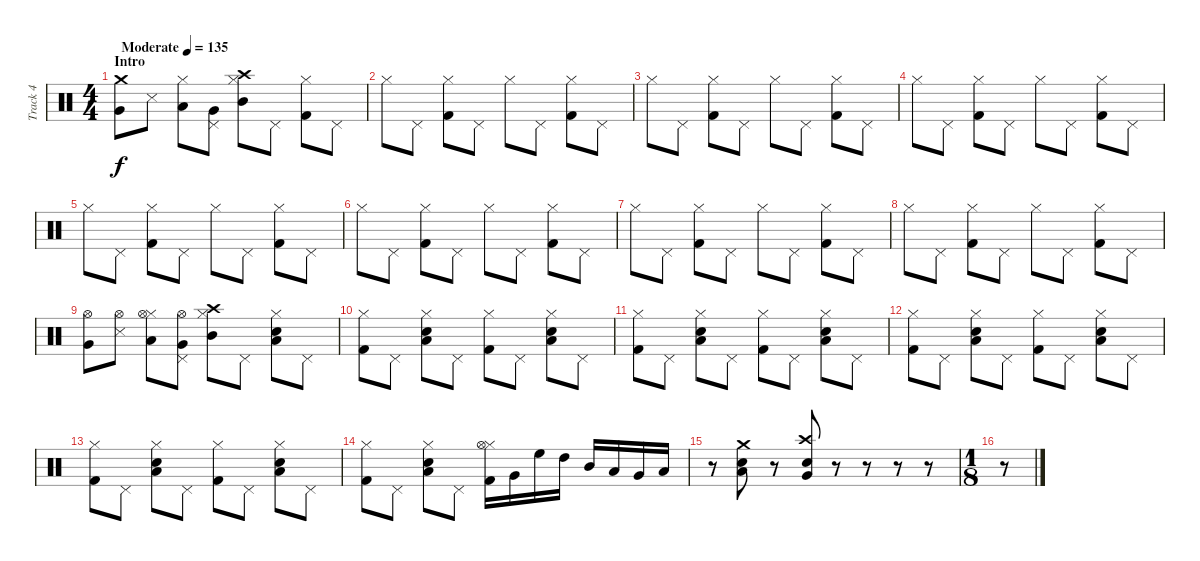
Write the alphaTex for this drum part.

\track ("Track 4" "Track 4") {instrument percussion}
\staff {score}
\articulation defaults
\ts (4 4)
\section ("" "Intro")
\tempo (135 "Moderate")
\clef neutral
\ks c
("Very Low Tom (hit)" "Crash medium (hit)").8{dy f} "Snare (side stick) 3".8 ("Hi-Hat (closed)" "Low Tom (hit)").8 ("Pedal Hi-Hat (hit)" "Very Low Tom (hit)").8 ("Hi-Hat (closed)" "Mid Tom (hit)" "Crash high (hit)").8 "Pedal Hi-Hat (hit)".8 ("Hi-Hat (closed)" "Kick (hit) 2").8 "Pedal Hi-Hat (hit)".8 |
"Hi-Hat (closed)".8 "Pedal Hi-Hat (hit)".8 ("Hi-Hat (closed)" "Kick (hit) 2").8 "Pedal Hi-Hat (hit)".8 "Hi-Hat (closed)".8 "Pedal Hi-Hat (hit)".8 ("Hi-Hat (closed)" "Kick (hit) 2").8 "Pedal Hi-Hat (hit)".8 |
"Hi-Hat (closed)".8 "Pedal Hi-Hat (hit)".8 ("Hi-Hat (closed)" "Kick (hit) 2").8 "Pedal Hi-Hat (hit)".8 "Hi-Hat (closed)".8 "Pedal Hi-Hat (hit)".8 ("Hi-Hat (closed)" "Kick (hit) 2").8 "Pedal Hi-Hat (hit)".8 |
"Hi-Hat (closed)".8 "Pedal Hi-Hat (hit)".8 ("Hi-Hat (closed)" "Kick (hit) 2").8 "Pedal Hi-Hat (hit)".8 "Hi-Hat (closed)".8 "Pedal Hi-Hat (hit)".8 ("Hi-Hat (closed)" "Kick (hit) 2").8 "Pedal Hi-Hat (hit)".8 |
"Hi-Hat (closed)".8 "Pedal Hi-Hat (hit)".8 ("Hi-Hat (closed)" "Kick (hit) 2").8 "Pedal Hi-Hat (hit)".8 "Hi-Hat (closed)".8 "Pedal Hi-Hat (hit)".8 ("Hi-Hat (closed)" "Kick (hit) 2").8 "Pedal Hi-Hat (hit)".8 |
"Hi-Hat (closed)".8 "Pedal Hi-Hat (hit)".8 ("Hi-Hat (closed)" "Kick (hit) 2").8 "Pedal Hi-Hat (hit)".8 "Hi-Hat (closed)".8 "Pedal Hi-Hat (hit)".8 ("Hi-Hat (closed)" "Kick (hit) 2").8 "Pedal Hi-Hat (hit)".8 |
"Hi-Hat (closed)".8 "Pedal Hi-Hat (hit)".8 ("Hi-Hat (closed)" "Kick (hit) 2").8 "Pedal Hi-Hat (hit)".8 "Hi-Hat (closed)".8 "Pedal Hi-Hat (hit)".8 ("Hi-Hat (closed)" "Kick (hit) 2").8 "Pedal Hi-Hat (hit)".8 |
"Hi-Hat (closed)".8 "Pedal Hi-Hat (hit)".8 ("Hi-Hat (closed)" "Kick (hit) 2").8 "Pedal Hi-Hat (hit)".8 "Hi-Hat (closed)".8 "Pedal Hi-Hat (hit)".8 ("Hi-Hat (closed)" "Kick (hit) 2").8 "Pedal Hi-Hat (hit)".8 |
("Very Low Tom (hit)" "Hi-Hat (open)").8 ("Snare (side stick) 3" "Hi-Hat (open)").8 ("Hi-Hat (closed)" "Low Tom (hit)" "Hi-Hat (open)").8 ("Pedal Hi-Hat (hit)" "Very Low Tom (hit)" "Hi-Hat (open)").8 ("Hi-Hat (closed)" "Mid Tom (hit)" "Crash high (hit)").8 "Pedal Hi-Hat (hit)".8 ("Hi-Hat (closed)" "Low Tom (hit)" "Snare (hit) 2").8 "Pedal Hi-Hat (hit)".8 |
("Hi-Hat (closed)" "Kick (hit) 2").8 "Pedal Hi-Hat (hit)".8 ("Hi-Hat (closed)" "Low Tom (hit)" "Snare (hit) 2").8 "Pedal Hi-Hat (hit)".8 ("Hi-Hat (closed)" "Kick (hit) 2").8 "Pedal Hi-Hat (hit)".8 ("Hi-Hat (closed)" "Low Tom (hit)" "Snare (hit) 2").8 "Pedal Hi-Hat (hit)".8 |
("Hi-Hat (closed)" "Kick (hit) 2").8 "Pedal Hi-Hat (hit)".8 ("Hi-Hat (closed)" "Low Tom (hit)" "Snare (hit) 2").8 "Pedal Hi-Hat (hit)".8 ("Hi-Hat (closed)" "Kick (hit) 2").8 "Pedal Hi-Hat (hit)".8 ("Hi-Hat (closed)" "Low Tom (hit)" "Snare (hit) 2").8 "Pedal Hi-Hat (hit)".8 |
("Hi-Hat (closed)" "Kick (hit) 2").8 "Pedal Hi-Hat (hit)".8 ("Hi-Hat (closed)" "Low Tom (hit)" "Snare (hit) 2").8 "Pedal Hi-Hat (hit)".8 ("Hi-Hat (closed)" "Kick (hit) 2").8 "Pedal Hi-Hat (hit)".8 ("Hi-Hat (closed)" "Low Tom (hit)" "Snare (hit) 2").8 "Pedal Hi-Hat (hit)".8 |
("Hi-Hat (closed)" "Kick (hit) 2").8 "Pedal Hi-Hat (hit)".8 ("Hi-Hat (closed)" "Low Tom (hit)" "Snare (hit) 2").8 "Pedal Hi-Hat (hit)".8 ("Hi-Hat (closed)" "Kick (hit) 2").8 "Pedal Hi-Hat (hit)".8 ("Hi-Hat (closed)" "Low Tom (hit)" "Snare (hit) 2").8 "Pedal Hi-Hat (hit)".8 |
("Hi-Hat (closed)" "Kick (hit) 2").8 "Pedal Hi-Hat (hit)".8 ("Hi-Hat (closed)" "Low Tom (hit)" "Snare (hit) 2").8 "Pedal Hi-Hat (hit)".8 ("Hi-Hat (closed)" "Kick (hit) 2" "Hi-Hat (open)").16 "Very Low Tom (hit)".16 "High Floor Tom (hit)".16 "High Tom (hit)".16 "Mid Tom (hit)".16 "Low Tom (hit)".16 "Very Low Tom (hit)".16 "Low Floor Tom (hit)".16 |
r.8 ("Low Tom (hit)" "Snare (hit) 2" "Crash medium (hit)").8 r.8 ("Very Low Tom (hit)" "Snare (hit) 2" "Crash high (hit)").8 r.8 r.8 r.8 r.8 |
\ts (1 8)
r.8
